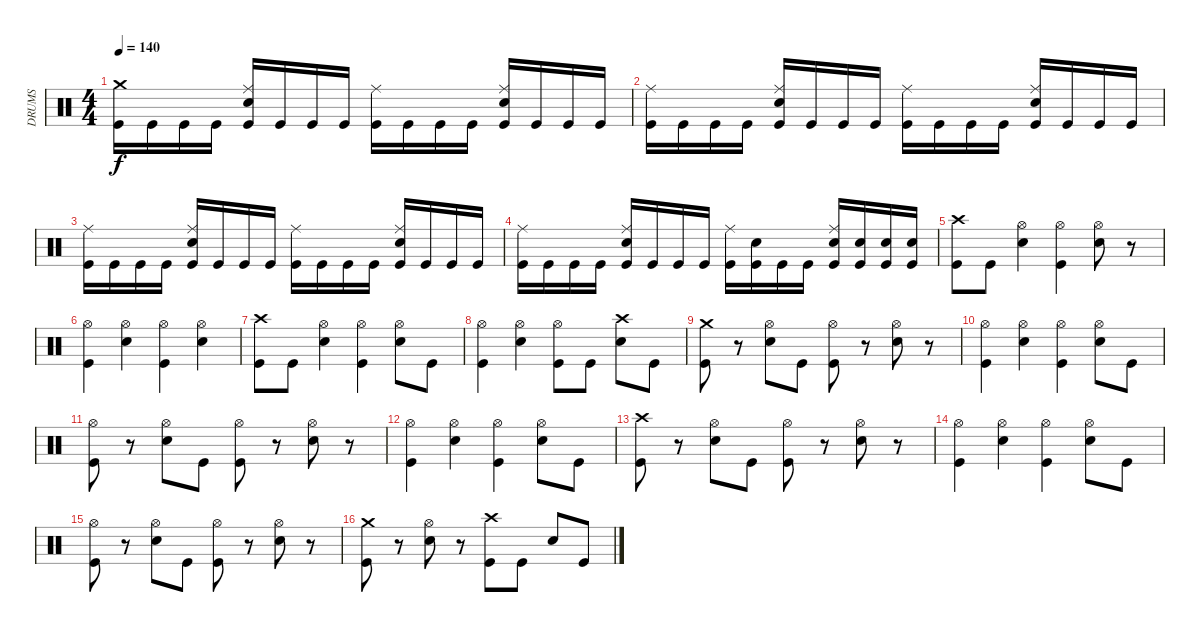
\track ("DRUMS" "DRUMS") {instrument percussion}
\staff {score}
\articulation defaults
\ts (4 4)
\tempo 140
\clef neutral
\ks c
("Crash medium (hit)" "Kick (hit)").16{dy f} "Kick (hit)".16 "Kick (hit)".16 "Kick (hit)".16 ("Ride (middle)" "Electric Snare (hit)" "Kick (hit)").16 "Kick (hit)".16 "Kick (hit)".16 "Kick (hit)".16 ("Ride (middle)" "Kick (hit)").16 "Kick (hit)".16 "Kick (hit)".16 "Kick (hit)".16 ("Ride (middle)" "Electric Snare (hit)" "Kick (hit)").16 "Kick (hit)".16 "Kick (hit)".16 "Kick (hit)".16 |
("Ride (middle)" "Kick (hit)").16 "Kick (hit)".16 "Kick (hit)".16 "Kick (hit)".16 ("Ride (middle)" "Electric Snare (hit)" "Kick (hit)").16 "Kick (hit)".16 "Kick (hit)".16 "Kick (hit)".16 ("Ride (middle)" "Kick (hit)").16 "Kick (hit)".16 "Kick (hit)".16 "Kick (hit)".16 ("Ride (middle)" "Electric Snare (hit)" "Kick (hit)").16 "Kick (hit)".16 "Kick (hit)".16 "Kick (hit)".16 |
("Ride (middle)" "Kick (hit)").16 "Kick (hit)".16 "Kick (hit)".16 "Kick (hit)".16 ("Ride (middle)" "Electric Snare (hit)" "Kick (hit)").16 "Kick (hit)".16 "Kick (hit)".16 "Kick (hit)".16 ("Ride (middle)" "Kick (hit)").16 "Kick (hit)".16 "Kick (hit)".16 "Kick (hit)".16 ("Ride (middle)" "Electric Snare (hit)" "Kick (hit)").16 "Kick (hit)".16 "Kick (hit)".16 "Kick (hit)".16 |
("Ride (middle)" "Kick (hit)").16 "Kick (hit)".16 "Kick (hit)".16 "Kick (hit)".16 ("Ride (middle)" "Electric Snare (hit)" "Kick (hit)").16 "Kick (hit)".16 "Kick (hit)".16 "Kick (hit)".16 ("Ride (middle)" "Kick (hit)").16 ("Electric Snare (hit)" "Kick (hit)").16 "Kick (hit)".16 "Kick (hit)".16 ("Ride (middle)" "Electric Snare (hit)" "Kick (hit)").16 ("Electric Snare (hit)" "Kick (hit)").16 ("Electric Snare (hit)" "Kick (hit)").16 ("Electric Snare (hit)" "Kick (hit)").16 |
("Crash high (hit)" "Kick (hit)").8 "Kick (hit)".8 ("Hi-Hat (open)" "Electric Snare (hit)").4 ("Hi-Hat (open)" "Kick (hit)").4 ("Hi-Hat (open)" "Electric Snare (hit)").8 r.8 |
("Hi-Hat (open)" "Kick (hit)").4 ("Hi-Hat (open)" "Electric Snare (hit)").4 ("Hi-Hat (open)" "Kick (hit)").4 ("Hi-Hat (open)" "Electric Snare (hit)").4 |
("Crash high (hit)" "Kick (hit)").8 "Kick (hit)".8 ("Hi-Hat (open)" "Electric Snare (hit)").4 ("Hi-Hat (open)" "Kick (hit)").4 ("Hi-Hat (open)" "Electric Snare (hit)").8 "Kick (hit)".8 |
("Hi-Hat (open)" "Kick (hit)").4 ("Hi-Hat (open)" "Electric Snare (hit)").4 ("Hi-Hat (open)" "Kick (hit)").8 "Kick (hit)".8 ("Crash high (hit)" "Electric Snare (hit)").8 "Kick (hit)".8 |
("Crash medium (hit)" "Kick (hit)").8 r.8 ("Hi-Hat (open)" "Electric Snare (hit)").8 "Kick (hit)".8 ("Hi-Hat (open)" "Kick (hit)").8 r.8 ("Hi-Hat (open)" "Electric Snare (hit)").8 r.8 |
("Hi-Hat (open)" "Kick (hit)").4 ("Hi-Hat (open)" "Electric Snare (hit)").4 ("Hi-Hat (open)" "Kick (hit)").4 ("Hi-Hat (open)" "Electric Snare (hit)").8 "Kick (hit)".8 |
("Hi-Hat (open)" "Kick (hit)").8 r.8 ("Hi-Hat (open)" "Electric Snare (hit)").8 "Kick (hit)".8 ("Hi-Hat (open)" "Kick (hit)").8 r.8 ("Hi-Hat (open)" "Electric Snare (hit)").8 r.8 |
("Hi-Hat (open)" "Kick (hit)").4 ("Hi-Hat (open)" "Electric Snare (hit)").4 ("Hi-Hat (open)" "Kick (hit)").4 ("Hi-Hat (open)" "Electric Snare (hit)").8 "Kick (hit)".8 |
("Crash high (hit)" "Kick (hit)").8 r.8 ("Hi-Hat (open)" "Electric Snare (hit)").8 "Kick (hit)".8 ("Hi-Hat (open)" "Kick (hit)").8 r.8 ("Hi-Hat (open)" "Electric Snare (hit)").8 r.8 |
("Hi-Hat (open)" "Kick (hit)").4 ("Hi-Hat (open)" "Electric Snare (hit)").4 ("Hi-Hat (open)" "Kick (hit)").4 ("Hi-Hat (open)" "Electric Snare (hit)").8 "Kick (hit)".8 |
("Hi-Hat (open)" "Kick (hit)").8 r.8 ("Hi-Hat (open)" "Electric Snare (hit)").8 "Kick (hit)".8 ("Hi-Hat (open)" "Kick (hit)").8 r.8 ("Hi-Hat (open)" "Electric Snare (hit)").8 r.8 |
("Crash medium (hit)" "Kick (hit)").8 r.8 ("Hi-Hat (open)" "Electric Snare (hit)").8 r.8 ("Crash high (hit)" "Kick (hit)").8 "Kick (hit)".8 "Electric Snare (hit)".8 "Kick (hit)".8
